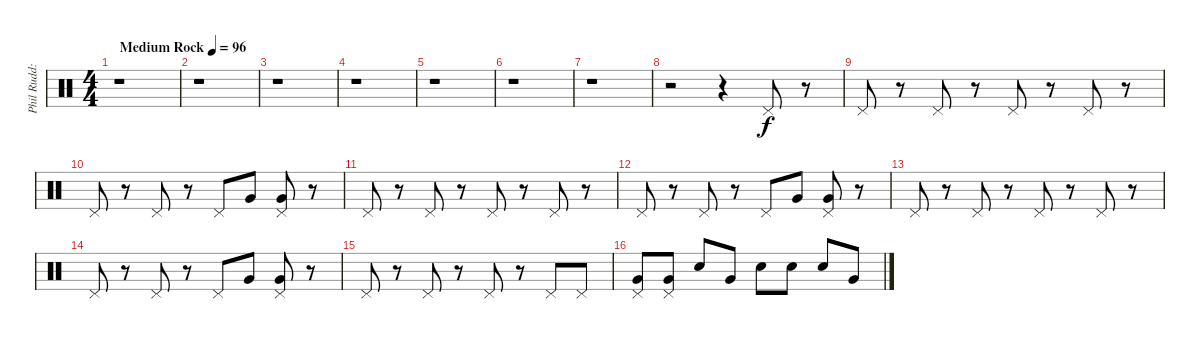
\track ("Phil Rudd: Drums" "Phil Rudd:") {instrument percussion}
\staff {score}
\articulation defaults
\ts (4 4)
\tempo (96 "Medium Rock")
\clef neutral
\ks c
r.1{dy f} |
r.1 |
r.1 |
r.1 |
r.1 |
r.1 |
r.1 |
r.2 r.4 "Pedal Hi-Hat (hit)".8 r.8 |
"Pedal Hi-Hat (hit)".8 r.8 "Pedal Hi-Hat (hit)".8 r.8 "Pedal Hi-Hat (hit)".8 r.8 "Pedal Hi-Hat (hit)".8 r.8 |
"Pedal Hi-Hat (hit)".8 r.8 "Pedal Hi-Hat (hit)".8 r.8 "Pedal Hi-Hat (hit)".8 "Very Low Tom (hit)".8 ("Pedal Hi-Hat (hit)" "Very Low Tom (hit)").8 r.8 |
"Pedal Hi-Hat (hit)".8 r.8 "Pedal Hi-Hat (hit)".8 r.8 "Pedal Hi-Hat (hit)".8 r.8 "Pedal Hi-Hat (hit)".8 r.8 |
"Pedal Hi-Hat (hit)".8 r.8 "Pedal Hi-Hat (hit)".8 r.8 "Pedal Hi-Hat (hit)".8 "Very Low Tom (hit)".8 ("Pedal Hi-Hat (hit)" "Very Low Tom (hit)").8 r.8 |
"Pedal Hi-Hat (hit)".8 r.8 "Pedal Hi-Hat (hit)".8 r.8 "Pedal Hi-Hat (hit)".8 r.8 "Pedal Hi-Hat (hit)".8 r.8 |
"Pedal Hi-Hat (hit)".8 r.8 "Pedal Hi-Hat (hit)".8 r.8 "Pedal Hi-Hat (hit)".8 "Very Low Tom (hit)".8 ("Pedal Hi-Hat (hit)" "Very Low Tom (hit)").8 r.8 |
"Pedal Hi-Hat (hit)".8 r.8 "Pedal Hi-Hat (hit)".8 r.8 "Pedal Hi-Hat (hit)".8 r.8 "Pedal Hi-Hat (hit)".8 "Pedal Hi-Hat (hit)".8 |
("Pedal Hi-Hat (hit)" "Very Low Tom (hit)").8 ("Pedal Hi-Hat (hit)" "Very Low Tom (hit)").8 "Snare (hit) 2".8 "Very Low Tom (hit)".8 "Snare (hit) 2".8 "Snare (hit) 2".8 "Snare (hit) 2".8 "Very Low Tom (hit)".8
